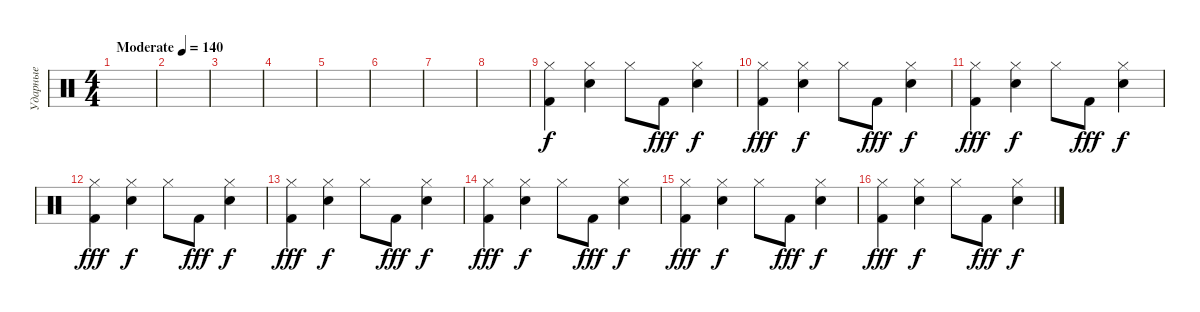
\track ("Ударные" "Ударные") {instrument percussion}
\staff {score}
\articulation defaults
\ts (4 4)
\tempo (140 "Moderate")
\clef neutral
\ks c
|
|
|
|
|
|
|
|
("Hi-Hat (closed)" "Kick (hit) 2").4 ("Hi-Hat (closed)" "Snare (hit) 2").4{dy f} "Hi-Hat (closed)".8 "Kick (hit) 2".8{dy fff} ("Hi-Hat (closed)" "Snare (hit) 2").4{dy f} |
("Hi-Hat (closed)" "Kick (hit) 2").4{dy fff} ("Hi-Hat (closed)" "Snare (hit) 2").4{dy f} "Hi-Hat (closed)".8 "Kick (hit) 2".8{dy fff} ("Hi-Hat (closed)" "Snare (hit) 2").4{dy f} |
("Hi-Hat (closed)" "Kick (hit) 2").4{dy fff} ("Hi-Hat (closed)" "Snare (hit) 2").4{dy f} "Hi-Hat (closed)".8 "Kick (hit) 2".8{dy fff} ("Hi-Hat (closed)" "Snare (hit) 2").4{dy f} |
("Hi-Hat (closed)" "Kick (hit) 2").4{dy fff} ("Hi-Hat (closed)" "Snare (hit) 2").4{dy f} "Hi-Hat (closed)".8 "Kick (hit) 2".8{dy fff} ("Hi-Hat (closed)" "Snare (hit) 2").4{dy f} |
("Hi-Hat (closed)" "Kick (hit) 2").4{dy fff} ("Hi-Hat (closed)" "Snare (hit) 2").4{dy f} "Hi-Hat (closed)".8 "Kick (hit) 2".8{dy fff} ("Hi-Hat (closed)" "Snare (hit) 2").4{dy f} |
("Hi-Hat (closed)" "Kick (hit) 2").4{dy fff} ("Hi-Hat (closed)" "Snare (hit) 2").4{dy f} "Hi-Hat (closed)".8 "Kick (hit) 2".8{dy fff} ("Hi-Hat (closed)" "Snare (hit) 2").4{dy f} |
("Hi-Hat (closed)" "Kick (hit) 2").4{dy fff} ("Hi-Hat (closed)" "Snare (hit) 2").4{dy f} "Hi-Hat (closed)".8 "Kick (hit) 2".8{dy fff} ("Hi-Hat (closed)" "Snare (hit) 2").4{dy f} |
("Hi-Hat (closed)" "Kick (hit) 2").4{dy fff} ("Hi-Hat (closed)" "Snare (hit) 2").4{dy f} "Hi-Hat (closed)".8 "Kick (hit) 2".8{dy fff} ("Hi-Hat (closed)" "Snare (hit) 2").4{dy f}
